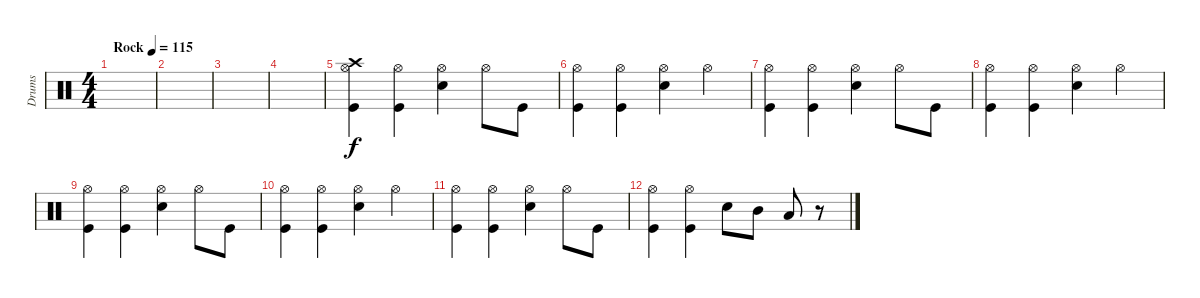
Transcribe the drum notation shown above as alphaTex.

\track ("Drums" "Drums") {instrument percussion}
\staff {score}
\articulation defaults
\ts (4 4)
\tempo (115 "Rock")
\clef neutral
\ks c
|
|
|
|
("Crash high (hit)" "Hi-Hat (open)" "Kick (hit)").4 ("Hi-Hat (open)" "Kick (hit)").4 ("Hi-Hat (open)" "Snare (hit) 2").4 "Hi-Hat (open)".8 "Kick (hit)".8 |
("Hi-Hat (open)" "Kick (hit)").4 ("Hi-Hat (open)" "Kick (hit)").4 ("Hi-Hat (open)" "Snare (hit) 2").4 "Hi-Hat (open)".4 |
("Hi-Hat (open)" "Kick (hit)").4 ("Hi-Hat (open)" "Kick (hit)").4 ("Hi-Hat (open)" "Snare (hit) 2").4 "Hi-Hat (open)".8 "Kick (hit)".8 |
("Hi-Hat (open)" "Kick (hit)").4 ("Hi-Hat (open)" "Kick (hit)").4 ("Hi-Hat (open)" "Snare (hit) 2").4 "Hi-Hat (open)".4 |
("Hi-Hat (open)" "Kick (hit)").4 ("Hi-Hat (open)" "Kick (hit)").4 ("Hi-Hat (open)" "Snare (hit) 2").4 "Hi-Hat (open)".8 "Kick (hit)".8 |
("Hi-Hat (open)" "Kick (hit)").4 ("Hi-Hat (open)" "Kick (hit)").4 ("Hi-Hat (open)" "Snare (hit) 2").4 "Hi-Hat (open)".4 |
("Hi-Hat (open)" "Kick (hit)").4 ("Hi-Hat (open)" "Kick (hit)").4 ("Hi-Hat (open)" "Snare (hit) 2").4 "Hi-Hat (open)".8 "Kick (hit)".8 |
("Hi-Hat (open)" "Kick (hit)").4 ("Hi-Hat (open)" "Kick (hit)").4 "Snare (hit) 2".8 "Mid Tom (hit)".8 "Low Tom (hit)".8 r.8
